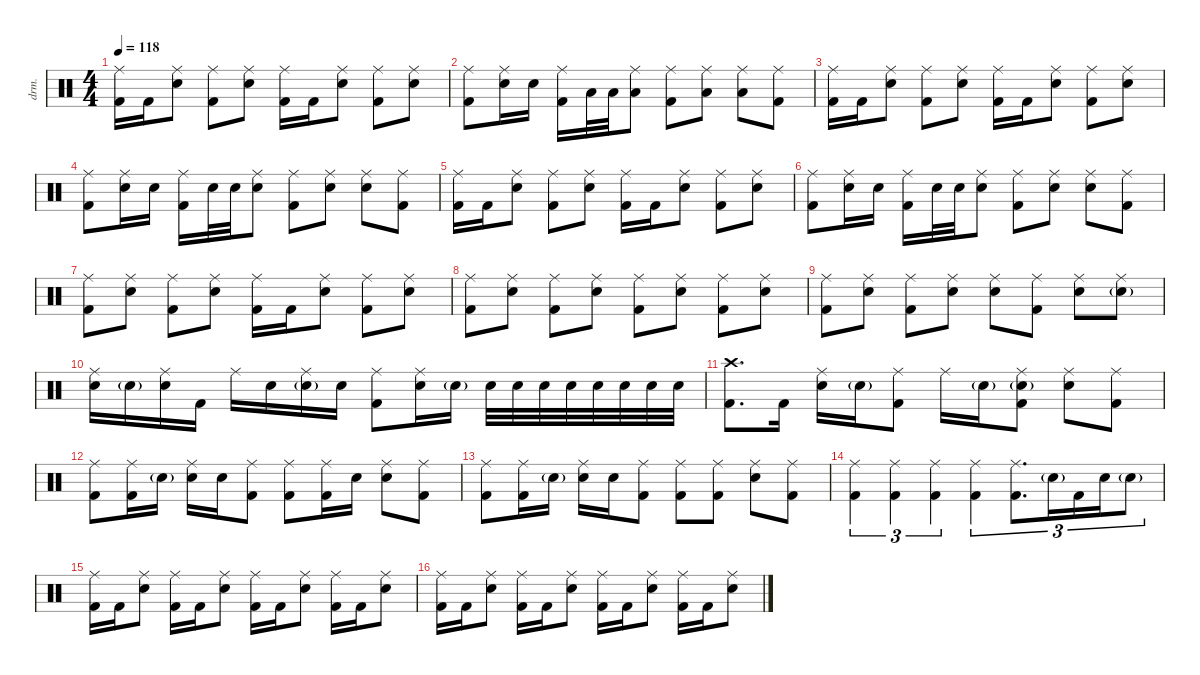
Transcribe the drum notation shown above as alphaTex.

\defaultSystemsLayout 4
\hideDynamics
\bracketExtendMode nobrackets
\otherSystemsTrackNameOrientation horizontal
\track ("Drums" "drm.") {instrument percussion}
\staff {score}
\articulation defaults
\ts (4 4)
\tempo 118
\clef neutral
\ks c
("Ride (middle)" "Kick (hit) 2").16{dy f beam Down} "Kick (hit) 2".16{beam Down} ("Ride (middle)" "Snare (hit) 2").8{beam Down} ("Ride (middle)" "Kick (hit) 2").8{beam Down} ("Ride (middle)" "Snare (hit) 2").8{beam Down} ("Ride (middle)" "Kick (hit) 2").16{beam Down} "Kick (hit) 2".16{beam Down} ("Ride (middle)" "Snare (hit) 2").8{beam Down} ("Ride (middle)" "Kick (hit) 2").8{beam Down} ("Ride (middle)" "Snare (hit) 2").8{beam Down} |
("Ride (middle)" "Kick (hit) 2").8{beam Down} ("Ride (middle)" "Snare (hit) 2").16{beam Down} "Snare (hit) 2".16{beam Down} ("Ride (middle)" "Kick (hit) 2").16{beam Down} "Low Tom (hit)".32{dy mp beam Down} "Low Tom (hit)".32{dy mf beam Down} ("Ride (middle)" "Low Tom (hit)").8{dy f beam Down} ("Ride (middle)" "Kick (hit) 2").8{beam Down} ("Ride (middle)" "Low Tom (hit)").8{beam Down} ("Ride (middle)" "Low Tom (hit)").8{beam Down} ("Ride (middle)" "Kick (hit) 2").8{beam Down} |
("Ride (middle)" "Kick (hit) 2").16{beam Down} "Kick (hit) 2".16{beam Down} ("Ride (middle)" "Snare (hit) 2").8{beam Down} ("Ride (middle)" "Kick (hit) 2").8{beam Down} ("Ride (middle)" "Snare (hit) 2").8{beam Down} ("Ride (middle)" "Kick (hit) 2").16{beam Down} "Kick (hit) 2".16{beam Down} ("Ride (middle)" "Snare (hit) 2").8{beam Down} ("Ride (middle)" "Kick (hit) 2").8{beam Down} ("Ride (middle)" "Snare (hit) 2").8{beam Down} |
("Ride (middle)" "Kick (hit) 2").8{beam Down} ("Ride (middle)" "Snare (hit) 2").16{beam Down} "Snare (hit) 2".16{beam Down} ("Ride (middle)" "Kick (hit) 2").16{beam Down} "Snare (hit) 2".32{dy mp beam Down} "Snare (hit) 2".32{dy mf beam Down} ("Ride (middle)" "Snare (hit) 2").8{dy f beam Down} ("Ride (middle)" "Kick (hit) 2").8{beam Down} ("Ride (middle)" "Snare (hit) 2").8{beam Down} ("Ride (middle)" "Snare (hit) 2").8{beam Down} ("Ride (middle)" "Kick (hit) 2").8{beam Down} |
("Ride (middle)" "Kick (hit) 2").16{beam Down} "Kick (hit) 2".16{beam Down} ("Ride (middle)" "Snare (hit) 2").8{beam Down} ("Ride (middle)" "Kick (hit) 2").8{beam Down} ("Ride (middle)" "Snare (hit) 2").8{beam Down} ("Ride (middle)" "Kick (hit) 2").16{beam Down} "Kick (hit) 2".16{beam Down} ("Ride (middle)" "Snare (hit) 2").8{beam Down} ("Ride (middle)" "Kick (hit) 2").8{beam Down} ("Ride (middle)" "Snare (hit) 2").8{beam Down} |
("Ride (middle)" "Kick (hit) 2").8{beam Down} ("Ride (middle)" "Snare (hit) 2").16{beam Down} "Snare (hit) 2".16{beam Down} ("Ride (middle)" "Kick (hit) 2").16{beam Down} "Snare (hit) 2".32{dy mp beam Down} "Snare (hit) 2".32{dy mf beam Down} ("Ride (middle)" "Snare (hit) 2").8{dy f beam Down} ("Ride (middle)" "Kick (hit) 2").8{beam Down} ("Ride (middle)" "Snare (hit) 2").8{beam Down} ("Ride (middle)" "Snare (hit) 2").8{beam Down} ("Ride (middle)" "Kick (hit) 2").8{beam Down} |
("Ride (middle)" "Kick (hit) 2").8{beam Down} ("Ride (middle)" "Snare (hit) 2").8{beam Down} ("Ride (middle)" "Kick (hit) 2").8{beam Down} ("Ride (middle)" "Snare (hit) 2").8{beam Down} ("Ride (middle)" "Kick (hit) 2").16{beam Down} "Kick (hit) 2".16{beam Down} ("Ride (middle)" "Snare (hit) 2").8{beam Down} ("Ride (middle)" "Kick (hit) 2").8{beam Down} ("Ride (middle)" "Snare (hit) 2").8{beam Down} |
("Ride (middle)" "Kick (hit) 2").8{beam Down} ("Ride (middle)" "Snare (hit) 2").8{beam Down} ("Ride (middle)" "Kick (hit) 2").8{beam Down} ("Ride (middle)" "Snare (hit) 2").8{beam Down} ("Ride (middle)" "Kick (hit) 2").8{beam Down} ("Ride (middle)" "Snare (hit) 2").8{beam Down} ("Ride (middle)" "Kick (hit) 2").8{beam Down} ("Ride (middle)" "Snare (hit) 2").8{beam Down} |
("Ride (middle)" "Kick (hit) 2").8{beam Down} ("Ride (middle)" "Snare (hit) 2").8{beam Down} ("Ride (middle)" "Kick (hit) 2").8{beam Down} ("Ride (middle)" "Snare (hit) 2").8{beam Down} ("Ride (middle)" "Snare (hit) 2").8{beam Down} ("Ride (middle)" "Kick (hit) 2").8{beam Down} ("Ride (middle)" "Snare (hit) 2").8{beam Down} ("Ride (middle)" "Snare (hit) 2"{g}).8{beam Down} |
("Ride (middle)" "Snare (hit) 2").16{beam Down} "Snare (hit) 2"{g}.16{dy mf beam Down} ("Ride (middle)" "Snare (hit) 2").16{dy f beam Down} "Kick (hit) 2".16{beam Down} "Ride (middle)".16{beam Down} "Snare (hit) 2".16{beam Down} ("Ride (middle)" "Snare (hit) 2"{g}).16{beam Down} "Snare (hit) 2".16{beam Down} ("Ride (middle)" "Kick (hit) 2").8{beam Down} ("Ride (middle)" "Snare (hit) 2").16{beam Down} "Snare (hit) 2"{g}.16{dy mf beam Down} "Snare (hit) 2".32{dy f beam Down} "Snare (hit) 2".32{beam Down} "Snare (hit) 2".32{beam Down} "Snare (hit) 2".32{beam Down} "Snare (hit) 2".32{beam Down} "Snare (hit) 2".32{beam Down} "Snare (hit) 2".32{dy mf beam Down} "Snare (hit) 2".32{dy mp beam Down} |
("Crash high (hit)" "Kick (hit) 2").8{d dy f beam Down} "Kick (hit) 2".16{beam Down} ("Ride (middle)" "Snare (hit) 2").16{beam Down} "Snare (hit) 2"{g}.16{dy mf beam Down} ("Ride (middle)" "Kick (hit) 2").8{dy f beam Down} "Ride (middle)".16{beam Down} "Snare (hit) 2"{g}.16{dy mf beam Down} ("Ride (middle)" "Snare (hit) 2"{g} "Kick (hit) 2").8{dy f beam Down} ("Ride (middle)" "Snare (hit) 2").8{beam Down} ("Ride (middle)" "Kick (hit) 2").8{beam Down} |
("Ride (middle)" "Kick (hit) 2").8{beam Down} ("Ride (middle)" "Kick (hit) 2").16{beam Down} "Snare (hit) 2"{g}.16{dy mf beam Down} ("Ride (middle)" "Snare (hit) 2").16{dy f beam Down} "Snare (hit) 2".16{beam Down} ("Ride (middle)" "Kick (hit) 2").8{beam Down} ("Ride (middle)" "Kick (hit) 2").8{beam Down} ("Ride (middle)" "Kick (hit) 2").16{beam Down} "Snare (hit) 2".16{beam Down} ("Ride (middle)" "Snare (hit) 2").8{beam Down} ("Ride (middle)" "Kick (hit) 2").8{beam Down} |
("Ride (middle)" "Kick (hit) 2").8{beam Down} ("Ride (middle)" "Kick (hit) 2").16{beam Down} "Snare (hit) 2"{g}.16{dy mf beam Down} ("Ride (middle)" "Snare (hit) 2").16{dy f beam Down} "Snare (hit) 2".16{beam Down} ("Ride (middle)" "Kick (hit) 2").8{beam Down} ("Ride (middle)" "Kick (hit) 2").8{beam Down} ("Ride (middle)" "Kick (hit) 2").8{beam Down} ("Ride (middle)" "Snare (hit) 2").8{beam Down} ("Ride (middle)" "Kick (hit) 2").8{beam Down} |
("Ride (middle)" "Kick (hit) 2").4{tu (3 2) beam Down} ("Ride (middle)" "Kick (hit) 2").4{tu (3 2) beam Down} ("Ride (middle)" "Kick (hit) 2").4{tu (3 2) beam Down} ("Ride (middle)" "Kick (hit) 2").4{tu (3 2) beam Down} ("Ride (middle)" "Kick (hit) 2").8{d tu (3 2) beam Down} "Snare (hit) 2"{g}.16{tu (3 2) dy mf beam Down} "Kick (hit) 2".16{tu (3 2) dy f beam Down} "Snare (hit) 2".16{tu (3 2) beam Down} "Snare (hit) 2"{g}.8{tu (3 2) dy mf beam Down} |
("Ride (middle)" "Kick (hit) 2").16{dy f beam Down} "Kick (hit) 2".16{beam Down} ("Ride (middle)" "Snare (hit) 2").8{beam Down} ("Ride (middle)" "Kick (hit) 2").16{beam Down} "Kick (hit) 2".16{beam Down} ("Ride (middle)" "Snare (hit) 2").8{beam Down} ("Ride (middle)" "Kick (hit) 2").16{beam Down} "Kick (hit) 2".16{beam Down} ("Ride (middle)" "Snare (hit) 2").8{beam Down} ("Ride (middle)" "Kick (hit) 2").16{beam Down} "Kick (hit) 2".16{beam Down} ("Ride (middle)" "Snare (hit) 2").8{beam Down} |
("Ride (middle)" "Kick (hit) 2").16{beam Down} "Kick (hit) 2".16{beam Down} ("Ride (middle)" "Snare (hit) 2").8{beam Down} ("Ride (middle)" "Kick (hit) 2").16{beam Down} "Kick (hit) 2".16{beam Down} ("Ride (middle)" "Snare (hit) 2").8{beam Down} ("Ride (middle)" "Kick (hit) 2").16{beam Down} "Kick (hit) 2".16{beam Down} ("Ride (middle)" "Snare (hit) 2").8{beam Down} ("Ride (middle)" "Kick (hit) 2").16{beam Down} "Kick (hit) 2".16{beam Down} ("Ride (middle)" "Snare (hit) 2").8{beam Down}
